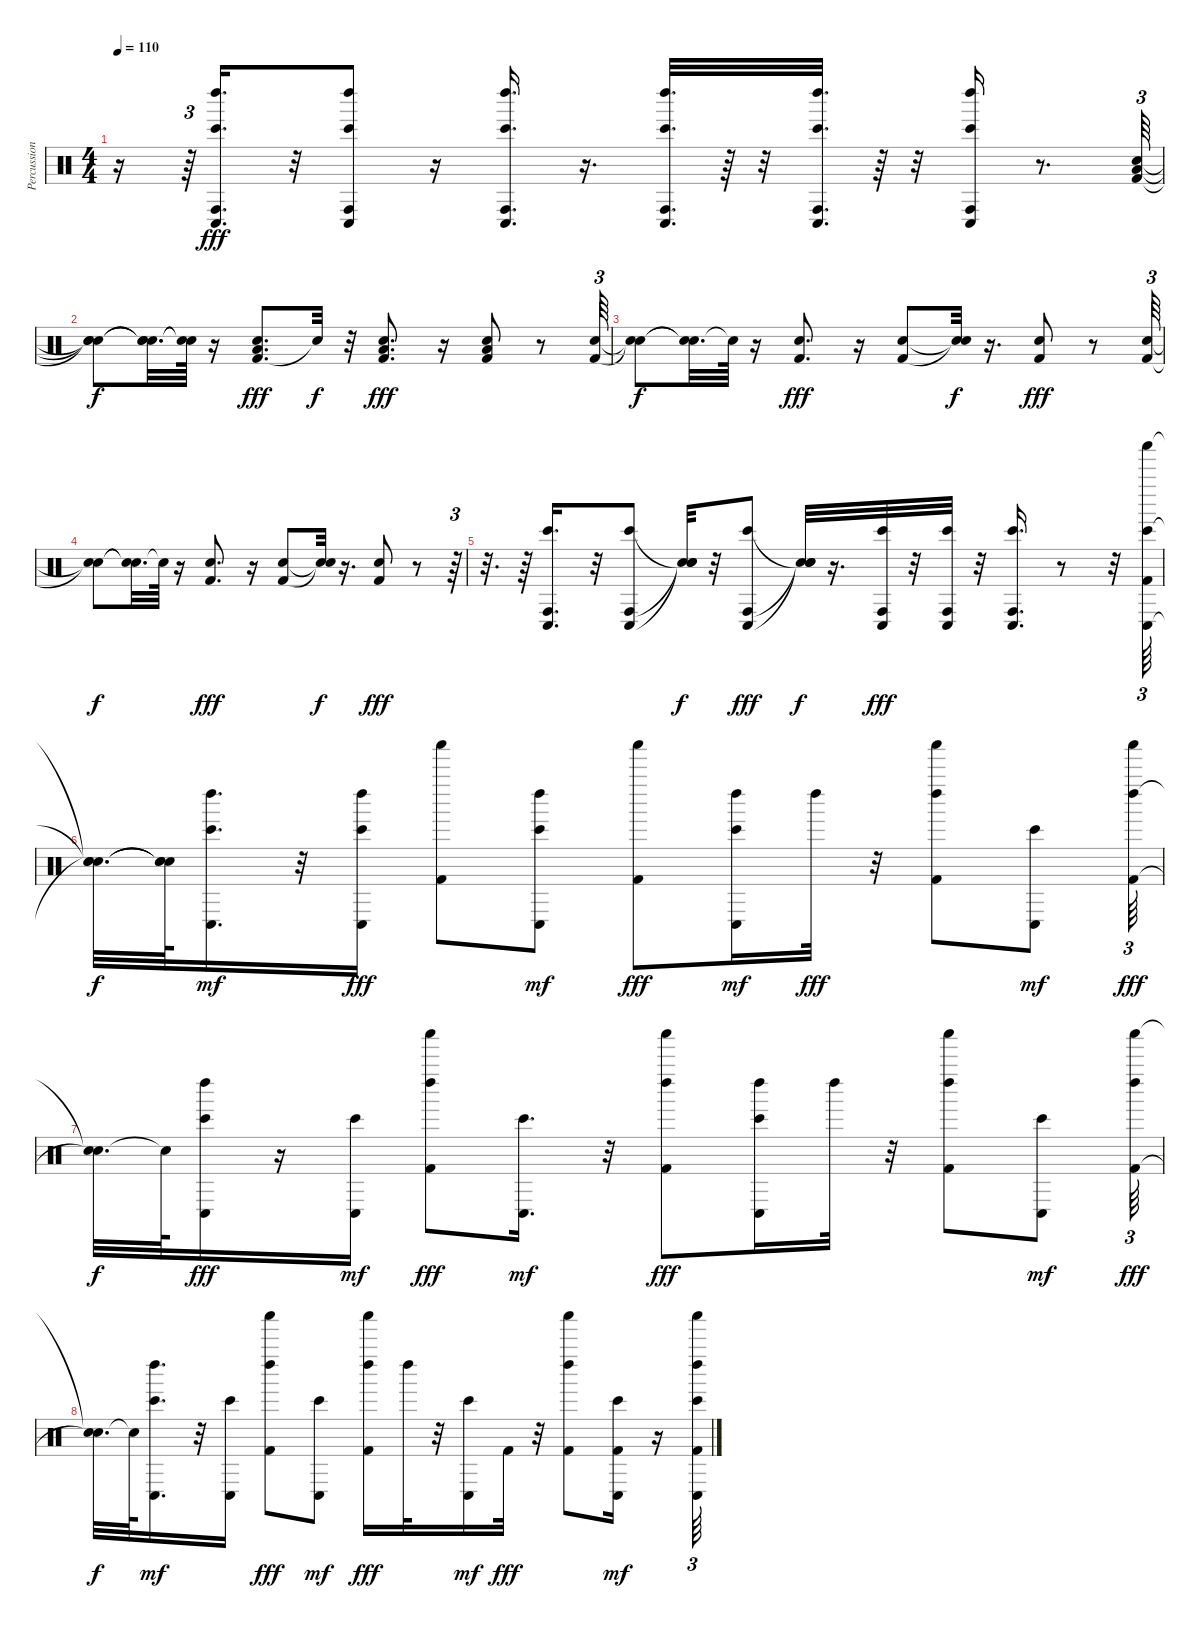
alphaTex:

\track ("Percussion" "Percussion") {instrument percussion}
\staff {score}
\articulation defaults
\ts (4 4)
\tempo 110
\clef neutral
\ks c
r.16{dy fff} r.64{tu (3 2)} ("Conga low (hit)" "Bongo High (hit)" "Left Maraca (hit)" "Conga high (hit)").16{d} r.32 ("Conga low (hit)" "Bongo High (hit)" "Conga high (hit)" "Left Maraca (hit)").8 r.16 ("Bongo High (hit)" "Conga high (hit)" "Left Maraca (hit)" "Conga low (hit)").16{d} r.16{d} ("Bongo High (hit)" "Left Maraca (hit)" "Conga high (hit)" "Conga low (hit)").32{d} r.64 r.32 ("Bongo High (hit)" "Left Maraca (hit)" "Conga low (hit)" "Conga high (hit)").32{d} r.64 r.32 ("Conga low (hit)" "Left Maraca (hit)" "Bongo High (hit)" "Conga high (hit)").16 r.8{d} ("Low Floor Tom (hit)" "Hand Clap (hit)" "Kick (hit) 2").64{tu (3 2)} |
("Snare (hit)"{t} "Snare (hit)"{t} "Snare (hit)"{t}).8{dy f} ("Snare (hit)"{t} "Snare (hit)"{t} "Snare (hit)"{t}).32{d} ("Snare (hit)"{t} "Snare (hit)"{t}).64 r.16 ("Kick (hit) 2" "Low Floor Tom (hit)" "Hand Clap (hit)").8{d dy fff} "Snare (hit)"{t}.32{dy f} r.32 ("Kick (hit) 2" "Hand Clap (hit)" "Low Floor Tom (hit)").8{d dy fff} r.16 ("Low Floor Tom (hit)" "Kick (hit) 2" "Hand Clap (hit)").8 r.8 ("Hand Clap (hit)" "Kick (hit) 2").64{tu (3 2)} |
("Snare (hit)"{t} "Snare (hit)"{t}).8{dy f} ("Snare (hit)"{t} "Snare (hit)"{t}).32{d} "Snare (hit)"{t}.64 r.16 ("Kick (hit) 2" "Hand Clap (hit)").8{d dy fff} r.16 ("Hand Clap (hit)" "Kick (hit) 2").8 ("Snare (hit)"{t} "Snare (hit)"{t}).32{dy f} r.16{d} ("Kick (hit) 2" "Hand Clap (hit)").8{dy fff} r.8 ("Kick (hit) 2" "Hand Clap (hit)").64{tu (3 2)} |
("Snare (hit)"{t} "Snare (hit)"{t}).8{dy f} ("Snare (hit)"{t} "Snare (hit)"{t}).32{d} "Snare (hit)"{t}.64 r.16 ("Hand Clap (hit)" "Kick (hit) 2").8{d dy fff} r.16 ("Kick (hit) 2" "Hand Clap (hit)").8 ("Snare (hit)"{t} "Snare (hit)"{t}).32{dy f} r.16{d} ("Kick (hit) 2" "Hand Clap (hit)").8{dy fff} r.8 r.64{tu (3 2)} |
r.32{d} r.64 ("Bongo High (hit)" "Conga high (hit)" "Conga low (hit)").16{d} r.32 ("Conga high (hit)" "Conga low (hit)" "Bongo High (hit)").8 ("Snare (hit)"{t} "Snare (hit)"{t} "Snare (hit)"{t}).32{dy f} r.32 ("Conga high (hit)" "Conga low (hit)" "Bongo High (hit)").8{dy fff} ("Snare (hit)"{t} "Snare (hit)"{t} "Snare (hit)"{t}).32{dy f} r.16{d} ("Conga high (hit)" "Conga low (hit)" "Bongo High (hit)").32{dy fff} r.32 ("Conga low (hit)" "Bongo High (hit)" "Conga high (hit)").32 r.32 ("Bongo High (hit)" "Conga low (hit)" "Conga high (hit)").16{d} r.8 r.32 ("Conga low (hit)" "Shaker (hit)" "Bongo High (hit)" "Kick (hit) 2").64{tu (3 2)} |
("Snare (hit)"{t} "Snare (hit)"{t} "Snare (hit)"{t}).32{d dy f} ("Snare (hit)"{t} "Snare (hit)"{t} "Snare (hit)"{t}).64 ("Conga low (hit)" "Left Maraca (hit)" "Bongo High (hit)").16{d dy mf} r.32 ("Conga low (hit)" "Bongo High (hit)" "Left Maraca (hit)").16{dy fff} ("Shaker (hit)" "Kick (hit) 2").8 ("Bongo High (hit)" "Left Maraca (hit)" "Conga low (hit)").8{dy mf} ("Kick (hit) 2" "Shaker (hit)").8{dy fff} ("Left Maraca (hit)" "Conga low (hit)" "Bongo High (hit)").16{dy mf} "Left Maraca (hit)".32{dy fff} r.32 ("Kick (hit) 2" "Shaker (hit)" "Left Maraca (hit)").8 ("Bongo High (hit)" "Conga low (hit)").8{dy mf} ("Kick (hit) 2" "Left Maraca (hit)" "Shaker (hit)").64{tu (3 2) dy fff} |
("Snare (hit)"{t} "Snare (hit)"{t}).32{d dy f} "Snare (hit)"{t}.64 ("Conga low (hit)" "Bongo High (hit)" "Left Maraca (hit)").16{dy fff} r.16 ("Bongo High (hit)" "Conga low (hit)").16{dy mf} ("Kick (hit) 2" "Left Maraca (hit)" "Shaker (hit)").8{dy fff} ("Conga low (hit)" "Bongo High (hit)").16{d dy mf} r.32 ("Shaker (hit)" "Left Maraca (hit)" "Kick (hit) 2").8{dy fff} ("Bongo High (hit)" "Conga low (hit)" "Left Maraca (hit)").16 "Left Maraca (hit)".32 r.32 ("Kick (hit) 2" "Left Maraca (hit)" "Shaker (hit)").8 ("Bongo High (hit)" "Conga low (hit)").8{dy mf} ("Kick (hit) 2" "Shaker (hit)" "Left Maraca (hit)").64{tu (3 2) dy fff} |
("Snare (hit)"{t} "Snare (hit)"{t}).32{d dy f} "Snare (hit)"{t}.64 ("Conga low (hit)" "Left Maraca (hit)" "Bongo High (hit)").16{d dy mf} r.32 ("Conga low (hit)" "Bongo High (hit)").16 ("Left Maraca (hit)" "Kick (hit) 2" "Shaker (hit)").8{dy fff} ("Bongo High (hit)" "Conga low (hit)").8{dy mf} ("Left Maraca (hit)" "Shaker (hit)" "Kick (hit) 2").16{dy fff} "Left Maraca (hit)".32 r.32 ("Bongo High (hit)" "Conga low (hit)").16{dy mf} "Kick (hit) 2".32{dy fff} r.32 ("Kick (hit) 2" "Left Maraca (hit)" "Shaker (hit)").8 ("Kick (hit) 2" "Bongo High (hit)" "Conga low (hit)").16{dy mf} r.16 ("Shaker (hit)" "Kick (hit) 2" "Bongo High (hit)" "Left Maraca (hit)" "Conga low (hit)").64{tu (3 2)}
